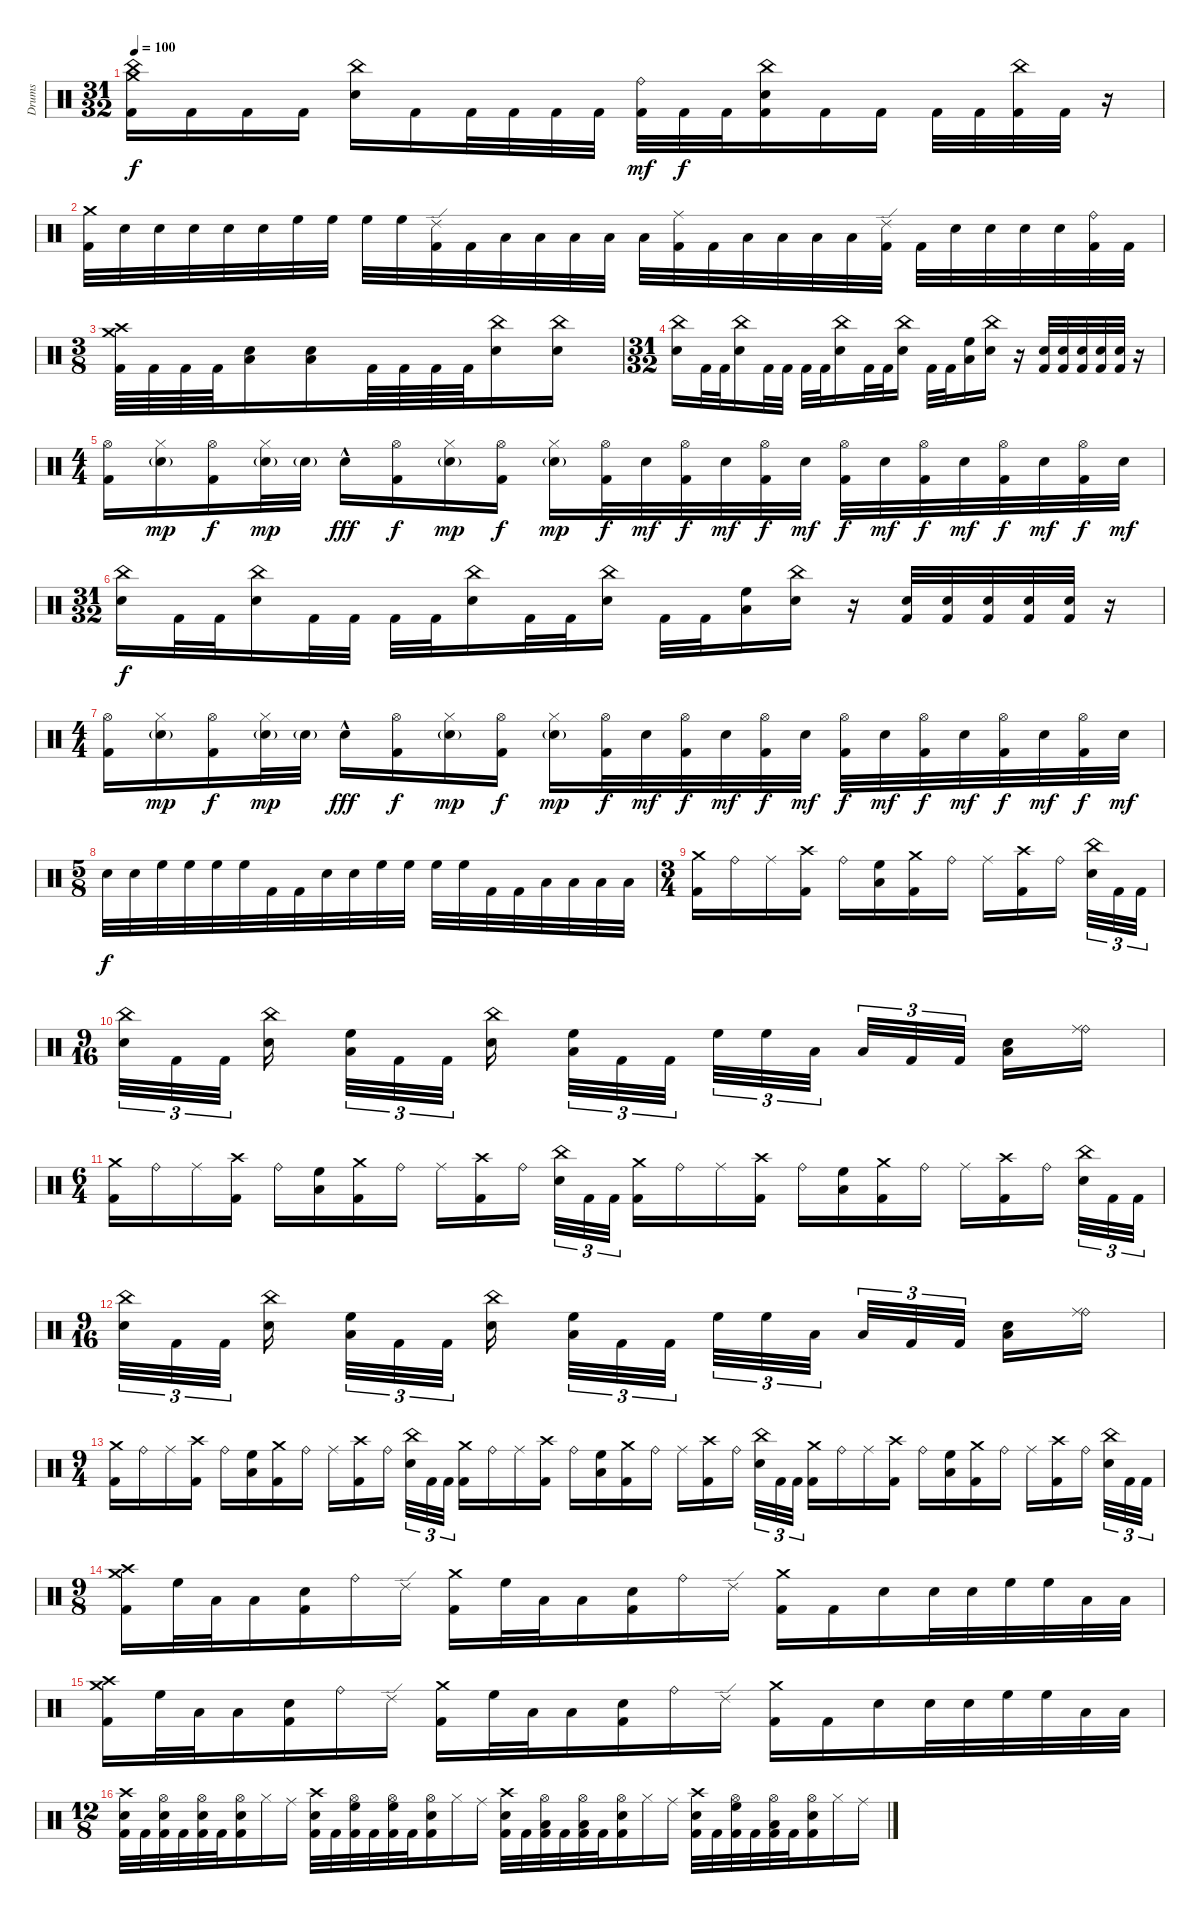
\track ("Drums" "Drums") {instrument percussion}
\staff {score}
\articulation defaults
\ts (31 32)
\tempo 100
\clef neutral
\ks c
("China (hit)" "Crash medium (hit)" "Kick (hit) 2").16{dy f} "Kick (hit) 2".16 "Kick (hit) 2".16 "Kick (hit) 2".16 ("Electric Snare (hit)" "China (hit)").16 "Kick (hit) 2".16 "Kick (hit) 2".32 "Kick (hit) 2".32 "Kick (hit) 2".32 "Kick (hit) 2".32 ("Kick (hit) 2" "Ride (bell)").32{dy mf} "Kick (hit) 2".32{dy f} "Kick (hit) 2".32 ("Kick (hit) 2" "China (hit)" "Electric Snare (hit)").16 "Kick (hit) 2".16 "Kick (hit) 2".16 "Kick (hit) 2".32 "Kick (hit) 2".32 ("Kick (hit) 2" "China (hit)").32 "Kick (hit) 2".32 r.16 |
("Crash medium (hit)" "Kick (hit) 2").32 "Electric Snare (hit)".32 "Electric Snare (hit)".32 "Electric Snare (hit)".32 "Electric Snare (hit)".32 "Electric Snare (hit)".32 "High Floor Tom (hit)".32 "High Floor Tom (hit)".32 "High Floor Tom (hit)".32 "High Floor Tom (hit)".32 ("Kick (hit) 2" "Ride (edge) 2").32 "Kick (hit) 2".32 "Low Tom (hit)".32 "Low Tom (hit)".32 "Low Tom (hit)".32 "Low Tom (hit)".32 "Low Tom (hit)".32 ("Kick (hit) 2" "Ride (middle)").32 "Kick (hit) 2".32 "Low Tom (hit)".32 "Low Tom (hit)".32 "Low Tom (hit)".32 "Low Tom (hit)".32 ("Kick (hit) 2" "Ride (edge) 2").32 "Kick (hit) 2".32 "Electric Snare (hit)".32 "Electric Snare (hit)".32 "Electric Snare (hit)".32 "Electric Snare (hit)".32 ("Kick (hit) 2" "Ride (bell)").32 "Kick (hit) 2".32 |
\ts (3 8)
("Kick (hit) 2" "Crash high (hit)" "Crash medium (hit)").64 "Kick (hit) 2".64 "Kick (hit) 2".64 "Kick (hit) 2".64 ("Low Tom (hit)" "Electric Snare (hit)").16 ("Low Tom (hit)" "Electric Snare (hit)").16 "Kick (hit) 2".64 "Kick (hit) 2".64 "Kick (hit) 2".64 "Kick (hit) 2".64 ("Electric Snare (hit)" "China (hit)").16 ("Electric Snare (hit)" "China (hit)").16 |
\ts (31 32)
("China (hit)" "Electric Snare (hit)").16 "Kick (hit) 2".32 "Kick (hit) 2".32 ("Electric Snare (hit)" "China (hit)").16 "Kick (hit) 2".32 "Kick (hit) 2".32 "Kick (hit) 2".32 "Kick (hit) 2".32 ("China (hit)" "Electric Snare (hit)").16 "Kick (hit) 2".32 "Kick (hit) 2".32 ("Electric Snare (hit)" "China (hit)").16 "Kick (hit) 2".32 "Kick (hit) 2".32 ("Low Tom (hit)" "High Floor Tom (hit)").16 ("Electric Snare (hit)" "China (hit)").16 r.16 ("Electric Snare (hit)" "Kick (hit) 2").32 ("Electric Snare (hit)" "Kick (hit) 2").32 ("Electric Snare (hit)" "Kick (hit) 2").32 ("Electric Snare (hit)" "Kick (hit) 2").32 ("Electric Snare (hit)" "Kick (hit) 2").32 r.16 |
\ts (4 4)
("Hi-Hat (open)" "Kick (hit) 2").16 ("Hi-Hat (closed)" "Electric Snare (hit)"{g}).16{dy mp} ("Hi-Hat (open)" "Kick (hit) 2").16{dy f} ("Hi-Hat (closed)" "Electric Snare (hit)"{g}).32{dy mp} "Electric Snare (hit)"{g}.32 "Electric Snare (hit)"{hac}.16{dy fff} ("Hi-Hat (open)" "Kick (hit) 2").16{dy f} ("Hi-Hat (closed)" "Electric Snare (hit)"{g}).16{dy mp} ("Hi-Hat (open)" "Kick (hit) 2").16{dy f} ("Hi-Hat (closed)" "Electric Snare (hit)"{g}).16{dy mp} ("Hi-Hat (open)" "Kick (hit) 2").32{dy f} "Electric Snare (hit)".32{dy mf} ("Hi-Hat (open)" "Kick (hit) 2").32{dy f} "Electric Snare (hit)".32{dy mf} ("Hi-Hat (open)" "Kick (hit) 2").32{dy f} "Electric Snare (hit)".32{dy mf} ("Hi-Hat (open)" "Kick (hit) 2").32{dy f} "Electric Snare (hit)".32{dy mf} ("Hi-Hat (open)" "Kick (hit) 2").32{dy f} "Electric Snare (hit)".32{dy mf} ("Hi-Hat (open)" "Kick (hit) 2").32{dy f} "Electric Snare (hit)".32{dy mf} ("Hi-Hat (open)" "Kick (hit) 2").32{dy f} "Electric Snare (hit)".32{dy mf} |
\ts (31 32)
("China (hit)" "Electric Snare (hit)").16{dy f} "Kick (hit) 2".32 "Kick (hit) 2".32 ("Electric Snare (hit)" "China (hit)").16 "Kick (hit) 2".32 "Kick (hit) 2".32 "Kick (hit) 2".32 "Kick (hit) 2".32 ("China (hit)" "Electric Snare (hit)").16 "Kick (hit) 2".32 "Kick (hit) 2".32 ("Electric Snare (hit)" "China (hit)").16 "Kick (hit) 2".32 "Kick (hit) 2".32 ("Low Tom (hit)" "High Floor Tom (hit)").16 ("Electric Snare (hit)" "China (hit)").16 r.16 ("Electric Snare (hit)" "Kick (hit) 2").32 ("Electric Snare (hit)" "Kick (hit) 2").32 ("Electric Snare (hit)" "Kick (hit) 2").32 ("Electric Snare (hit)" "Kick (hit) 2").32 ("Electric Snare (hit)" "Kick (hit) 2").32 r.16 |
\ts (4 4)
("Hi-Hat (open)" "Kick (hit) 2").16 ("Hi-Hat (closed)" "Electric Snare (hit)"{g}).16{dy mp} ("Hi-Hat (open)" "Kick (hit) 2").16{dy f} ("Hi-Hat (closed)" "Electric Snare (hit)"{g}).32{dy mp} "Electric Snare (hit)"{g}.32 "Electric Snare (hit)"{hac}.16{dy fff} ("Hi-Hat (open)" "Kick (hit) 2").16{dy f} ("Hi-Hat (closed)" "Electric Snare (hit)"{g}).16{dy mp} ("Hi-Hat (open)" "Kick (hit) 2").16{dy f} ("Hi-Hat (closed)" "Electric Snare (hit)"{g}).16{dy mp} ("Hi-Hat (open)" "Kick (hit) 2").32{dy f} "Electric Snare (hit)".32{dy mf} ("Hi-Hat (open)" "Kick (hit) 2").32{dy f} "Electric Snare (hit)".32{dy mf} ("Hi-Hat (open)" "Kick (hit) 2").32{dy f} "Electric Snare (hit)".32{dy mf} ("Hi-Hat (open)" "Kick (hit) 2").32{dy f} "Electric Snare (hit)".32{dy mf} ("Hi-Hat (open)" "Kick (hit) 2").32{dy f} "Electric Snare (hit)".32{dy mf} ("Hi-Hat (open)" "Kick (hit) 2").32{dy f} "Electric Snare (hit)".32{dy mf} ("Hi-Hat (open)" "Kick (hit) 2").32{dy f} "Electric Snare (hit)".32{dy mf} |
\ts (5 8)
"Electric Snare (hit)".32{dy f} "Electric Snare (hit)".32 "High Floor Tom (hit)".32 "High Floor Tom (hit)".32 "High Floor Tom (hit)".32 "High Floor Tom (hit)".32 "Kick (hit) 2".32 "Kick (hit) 2".32 "Electric Snare (hit)".32 "Electric Snare (hit)".32 "High Floor Tom (hit)".32 "High Floor Tom (hit)".32 "High Floor Tom (hit)".32 "High Floor Tom (hit)".32 "Kick (hit) 2".32 "Kick (hit) 2".32 "Low Tom (hit)".32 "Low Tom (hit)".32 "Low Tom (hit)".32 "Low Tom (hit)".32 |
\ts (3 4)
("Crash medium (hit)" "Kick (hit) 2").16 "Ride (bell)".16 "Ride (middle)".16 ("Crash high (hit)" "Kick (hit) 2").16 "Ride (bell)".16 ("High Floor Tom (hit)" "Low Tom (hit)").16 ("Crash medium (hit)" "Kick (hit) 2").16 "Ride (bell)".16 "Ride (middle)".16 ("Crash high (hit)" "Kick (hit) 2").16 "Ride (bell)".16{beam splitsecondary} ("China (hit)" "Electric Snare (hit)").32{tu (3 2)} "Kick (hit) 2".32{tu (3 2)} "Kick (hit) 2".32{tu (3 2)} |
\ts (9 16)
("China (hit)" "Electric Snare (hit)").32{tu (3 2)} "Kick (hit) 2".32{tu (3 2)} "Kick (hit) 2".32{tu (3 2) beam splitsecondary} ("China (hit)" "Electric Snare (hit)").16{beam splitsecondary} ("Low Tom (hit)" "High Floor Tom (hit)").32{tu (3 2)} "Kick (hit) 2".32{tu (3 2)} "Kick (hit) 2".32{tu (3 2)} ("China (hit)" "Electric Snare (hit)").16{beam splitsecondary} ("Low Tom (hit)" "High Floor Tom (hit)").32{tu (3 2)} "Kick (hit) 2".32{tu (3 2)} "Kick (hit) 2".32{tu (3 2) beam splitsecondary} "High Floor Tom (hit)".32{tu (3 2)} "High Floor Tom (hit)".32{tu (3 2)} "Low Tom (hit)".32{tu (3 2)} "Low Tom (hit)".32{tu (3 2)} "Kick (hit) 2".32{tu (3 2)} "Kick (hit) 2".32{tu (3 2) beam splitsecondary} ("Low Tom (hit)" "Electric Snare (hit)").16 ("Ride (bell)" "Ride (middle)").16 |
\ts (6 4)
("Crash medium (hit)" "Kick (hit) 2").16 "Ride (bell)".16 "Ride (middle)".16 ("Crash high (hit)" "Kick (hit) 2").16 "Ride (bell)".16 ("High Floor Tom (hit)" "Low Tom (hit)").16 ("Crash medium (hit)" "Kick (hit) 2").16 "Ride (bell)".16 "Ride (middle)".16 ("Crash high (hit)" "Kick (hit) 2").16 "Ride (bell)".16{beam splitsecondary} ("China (hit)" "Electric Snare (hit)").32{tu (3 2)} "Kick (hit) 2".32{tu (3 2)} "Kick (hit) 2".32{tu (3 2)} ("Crash medium (hit)" "Kick (hit) 2").16 "Ride (bell)".16 "Ride (middle)".16 ("Crash high (hit)" "Kick (hit) 2").16 "Ride (bell)".16 ("High Floor Tom (hit)" "Low Tom (hit)").16 ("Crash medium (hit)" "Kick (hit) 2").16 "Ride (bell)".16 "Ride (middle)".16 ("Crash high (hit)" "Kick (hit) 2").16 "Ride (bell)".16{beam splitsecondary} ("China (hit)" "Electric Snare (hit)").32{tu (3 2)} "Kick (hit) 2".32{tu (3 2)} "Kick (hit) 2".32{tu (3 2)} |
\ts (9 16)
("China (hit)" "Electric Snare (hit)").32{tu (3 2)} "Kick (hit) 2".32{tu (3 2)} "Kick (hit) 2".32{tu (3 2) beam splitsecondary} ("China (hit)" "Electric Snare (hit)").16{beam splitsecondary} ("Low Tom (hit)" "High Floor Tom (hit)").32{tu (3 2)} "Kick (hit) 2".32{tu (3 2)} "Kick (hit) 2".32{tu (3 2)} ("China (hit)" "Electric Snare (hit)").16{beam splitsecondary} ("Low Tom (hit)" "High Floor Tom (hit)").32{tu (3 2)} "Kick (hit) 2".32{tu (3 2)} "Kick (hit) 2".32{tu (3 2) beam splitsecondary} "High Floor Tom (hit)".32{tu (3 2)} "High Floor Tom (hit)".32{tu (3 2)} "Low Tom (hit)".32{tu (3 2)} "Low Tom (hit)".32{tu (3 2)} "Kick (hit) 2".32{tu (3 2)} "Kick (hit) 2".32{tu (3 2) beam splitsecondary} ("Low Tom (hit)" "Electric Snare (hit)").16 ("Ride (bell)" "Ride (middle)").16 |
\ts (9 4)
("Crash medium (hit)" "Kick (hit) 2").16 "Ride (bell)".16 "Ride (middle)".16 ("Crash high (hit)" "Kick (hit) 2").16 "Ride (bell)".16 ("High Floor Tom (hit)" "Low Tom (hit)").16 ("Crash medium (hit)" "Kick (hit) 2").16 "Ride (bell)".16 "Ride (middle)".16 ("Crash high (hit)" "Kick (hit) 2").16 "Ride (bell)".16{beam splitsecondary} ("China (hit)" "Electric Snare (hit)").32{tu (3 2)} "Kick (hit) 2".32{tu (3 2)} "Kick (hit) 2".32{tu (3 2)} ("Crash medium (hit)" "Kick (hit) 2").16 "Ride (bell)".16 "Ride (middle)".16 ("Crash high (hit)" "Kick (hit) 2").16 "Ride (bell)".16 ("High Floor Tom (hit)" "Low Tom (hit)").16 ("Crash medium (hit)" "Kick (hit) 2").16 "Ride (bell)".16 "Ride (middle)".16 ("Crash high (hit)" "Kick (hit) 2").16 "Ride (bell)".16{beam splitsecondary} ("China (hit)" "Electric Snare (hit)").32{tu (3 2)} "Kick (hit) 2".32{tu (3 2)} "Kick (hit) 2".32{tu (3 2)} ("Crash medium (hit)" "Kick (hit) 2").16 "Ride (bell)".16 "Ride (middle)".16 ("Crash high (hit)" "Kick (hit) 2").16 "Ride (bell)".16 ("High Floor Tom (hit)" "Low Tom (hit)").16 ("Crash medium (hit)" "Kick (hit) 2").16 "Ride (bell)".16 "Ride (middle)".16 ("Crash high (hit)" "Kick (hit) 2").16 "Ride (bell)".16{beam splitsecondary} ("China (hit)" "Electric Snare (hit)").32{tu (3 2)} "Kick (hit) 2".32{tu (3 2)} "Kick (hit) 2".32{tu (3 2)} |
\ts (9 8)
("Crash medium (hit)" "Crash high (hit)" "Kick (hit) 2").16 "High Floor Tom (hit)".32 "Low Tom (hit)".32 "Low Tom (hit)".16 ("Kick (hit) 2" "Electric Snare (hit)").16 "Ride (bell)".16 "Ride (edge) 2".16 ("Crash medium (hit)" "Kick (hit) 2").16 "High Floor Tom (hit)".32 "Low Tom (hit)".32 "Low Tom (hit)".16 ("Kick (hit) 2" "Electric Snare (hit)").16 "Ride (bell)".16 "Ride (edge) 2".16 ("Crash medium (hit)" "Kick (hit) 2").16 "Kick (hit) 2".16 "Electric Snare (hit)".16 "Electric Snare (hit)".32 "Electric Snare (hit)".32 "High Floor Tom (hit)".32 "High Floor Tom (hit)".32 "Low Tom (hit)".32 "Low Tom (hit)".32 |
("Crash medium (hit)" "Crash high (hit)" "Kick (hit) 2").16 "High Floor Tom (hit)".32 "Low Tom (hit)".32 "Low Tom (hit)".16 ("Kick (hit) 2" "Electric Snare (hit)").16 "Ride (bell)".16 "Ride (edge) 2".16 ("Crash medium (hit)" "Kick (hit) 2").16 "High Floor Tom (hit)".32 "Low Tom (hit)".32 "Low Tom (hit)".16 ("Kick (hit) 2" "Electric Snare (hit)").16 "Ride (bell)".16 "Ride (edge) 2".16 ("Crash medium (hit)" "Kick (hit) 2").16 "Kick (hit) 2".16 "Electric Snare (hit)".16 "Electric Snare (hit)".32 "Electric Snare (hit)".32 "High Floor Tom (hit)".32 "High Floor Tom (hit)".32 "Low Tom (hit)".32 "Low Tom (hit)".32 |
\ts (12 8)
("Crash high (hit)" "Electric Snare (hit)" "Kick (hit) 2").32 "Kick (hit) 2".32 ("Kick (hit) 2" "Electric Snare (hit)" "Hi-Hat (open)").32 "Kick (hit) 2".32 ("Hi-Hat (open)" "Electric Snare (hit)" "Kick (hit) 2").32 "Kick (hit) 2".32 ("Hi-Hat (open)" "Electric Snare (hit)" "Kick (hit) 2").16 "Hi-Hat (closed)".16 "Ride (middle)".16 ("Crash high (hit)" "Electric Snare (hit)" "Kick (hit) 2").32 "Kick (hit) 2".32 ("Hi-Hat (open)" "High Floor Tom (hit)" "Kick (hit) 2").32 "Kick (hit) 2".32 ("Hi-Hat (open)" "High Floor Tom (hit)" "Kick (hit) 2").32 "Kick (hit) 2".32 ("Kick (hit) 2" "Electric Snare (hit)" "Hi-Hat (open)").16 "Hi-Hat (closed)".16 "Ride (middle)".16 ("Crash high (hit)" "Electric Snare (hit)" "Kick (hit) 2").32 "Kick (hit) 2".32 ("Hi-Hat (open)" "Low Tom (hit)" "Kick (hit) 2").32 "Kick (hit) 2".32 ("Hi-Hat (open)" "Low Tom (hit)" "Kick (hit) 2").32 "Kick (hit) 2".32 ("Kick (hit) 2" "Electric Snare (hit)" "Hi-Hat (open)").16 "Hi-Hat (closed)".16 "Ride (middle)".16 ("Crash high (hit)" "Electric Snare (hit)" "Kick (hit) 2").32 "Kick (hit) 2".32 ("Hi-Hat (open)" "High Floor Tom (hit)" "Kick (hit) 2").32 "Kick (hit) 2".32 ("Hi-Hat (open)" "Low Tom (hit)" "Kick (hit) 2").32 "Kick (hit) 2".32 ("Kick (hit) 2" "Electric Snare (hit)" "Hi-Hat (open)").16 "Hi-Hat (closed)".16 "Ride (middle)".16
